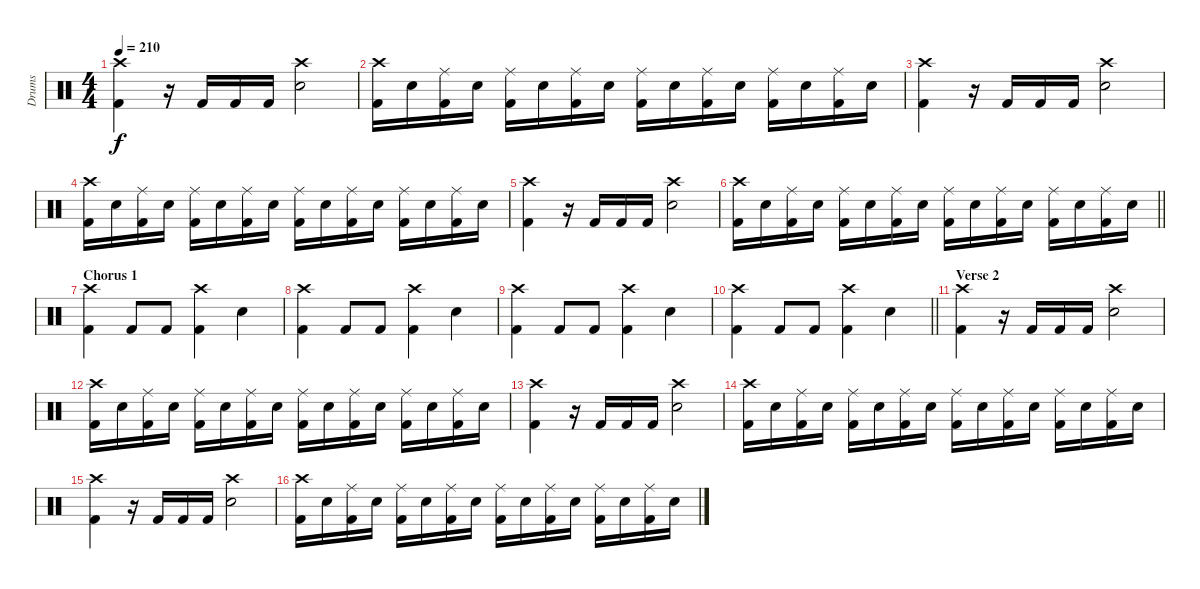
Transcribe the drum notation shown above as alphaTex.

\track ("Drums" "Drums") {instrument percussion}
\staff {score}
\articulation defaults
\ts (4 4)
\tempo 210
\clef neutral
\ks c
("Crash high (hit)" "Kick (hit) 2").4{dy f} r.16 "Kick (hit) 2".16 "Kick (hit) 2".16 "Kick (hit) 2".16 ("Crash high (hit)" "Electric Snare (hit)").2 |
("Crash high (hit)" "Kick (hit) 2").16 "Electric Snare (hit)".16 ("Ride (middle)" "Kick (hit) 2").16 "Electric Snare (hit)".16 ("Ride (middle)" "Kick (hit) 2").16 "Electric Snare (hit)".16 ("Ride (middle)" "Kick (hit) 2").16 "Electric Snare (hit)".16 ("Ride (middle)" "Kick (hit) 2").16 "Electric Snare (hit)".16 ("Ride (middle)" "Kick (hit) 2").16 "Electric Snare (hit)".16 ("Ride (middle)" "Kick (hit) 2").16 "Electric Snare (hit)".16 ("Ride (middle)" "Kick (hit) 2").16 "Electric Snare (hit)".16 |
("Crash high (hit)" "Kick (hit) 2").4 r.16 "Kick (hit) 2".16 "Kick (hit) 2".16 "Kick (hit) 2".16 ("Crash high (hit)" "Electric Snare (hit)").2 |
("Crash high (hit)" "Kick (hit) 2").16 "Electric Snare (hit)".16 ("Ride (middle)" "Kick (hit) 2").16 "Electric Snare (hit)".16 ("Ride (middle)" "Kick (hit) 2").16 "Electric Snare (hit)".16 ("Ride (middle)" "Kick (hit) 2").16 "Electric Snare (hit)".16 ("Ride (middle)" "Kick (hit) 2").16 "Electric Snare (hit)".16 ("Ride (middle)" "Kick (hit) 2").16 "Electric Snare (hit)".16 ("Ride (middle)" "Kick (hit) 2").16 "Electric Snare (hit)".16 ("Ride (middle)" "Kick (hit) 2").16 "Electric Snare (hit)".16 |
("Crash high (hit)" "Kick (hit) 2").4 r.16 "Kick (hit) 2".16 "Kick (hit) 2".16 "Kick (hit) 2".16 ("Crash high (hit)" "Electric Snare (hit)").2 |
\barLineRight lightlight
("Crash high (hit)" "Kick (hit) 2").16 "Electric Snare (hit)".16 ("Ride (middle)" "Kick (hit) 2").16 "Electric Snare (hit)".16 ("Ride (middle)" "Kick (hit) 2").16 "Electric Snare (hit)".16 ("Ride (middle)" "Kick (hit) 2").16 "Electric Snare (hit)".16 ("Ride (middle)" "Kick (hit) 2").16 "Electric Snare (hit)".16 ("Ride (middle)" "Kick (hit) 2").16 "Electric Snare (hit)".16 ("Ride (middle)" "Kick (hit) 2").16 "Electric Snare (hit)".16 ("Ride (middle)" "Kick (hit) 2").16 "Electric Snare (hit)".16 |
\section ("" "Chorus 1")
("Crash high (hit)" "Kick (hit) 2").4 "Kick (hit) 2".8 "Kick (hit) 2".8 ("Crash high (hit)" "Kick (hit) 2").4 "Electric Snare (hit)".4 |
("Crash high (hit)" "Kick (hit) 2").4 "Kick (hit) 2".8 "Kick (hit) 2".8 ("Crash high (hit)" "Kick (hit) 2").4 "Electric Snare (hit)".4 |
("Crash high (hit)" "Kick (hit) 2").4 "Kick (hit) 2".8 "Kick (hit) 2".8 ("Crash high (hit)" "Kick (hit) 2").4 "Electric Snare (hit)".4 |
\barLineRight lightlight
("Crash high (hit)" "Kick (hit) 2").4 "Kick (hit) 2".8 "Kick (hit) 2".8 ("Crash high (hit)" "Kick (hit) 2").4 "Electric Snare (hit)".4 |
\section ("" "Verse 2")
("Crash high (hit)" "Kick (hit) 2").4 r.16 "Kick (hit) 2".16 "Kick (hit) 2".16 "Kick (hit) 2".16 ("Crash high (hit)" "Electric Snare (hit)").2 |
("Crash high (hit)" "Kick (hit) 2").16 "Electric Snare (hit)".16 ("Ride (middle)" "Kick (hit) 2").16 "Electric Snare (hit)".16 ("Ride (middle)" "Kick (hit) 2").16 "Electric Snare (hit)".16 ("Ride (middle)" "Kick (hit) 2").16 "Electric Snare (hit)".16 ("Ride (middle)" "Kick (hit) 2").16 "Electric Snare (hit)".16 ("Ride (middle)" "Kick (hit) 2").16 "Electric Snare (hit)".16 ("Ride (middle)" "Kick (hit) 2").16 "Electric Snare (hit)".16 ("Ride (middle)" "Kick (hit) 2").16 "Electric Snare (hit)".16 |
("Crash high (hit)" "Kick (hit) 2").4 r.16 "Kick (hit) 2".16 "Kick (hit) 2".16 "Kick (hit) 2".16 ("Crash high (hit)" "Electric Snare (hit)").2 |
("Crash high (hit)" "Kick (hit) 2").16 "Electric Snare (hit)".16 ("Ride (middle)" "Kick (hit) 2").16 "Electric Snare (hit)".16 ("Ride (middle)" "Kick (hit) 2").16 "Electric Snare (hit)".16 ("Ride (middle)" "Kick (hit) 2").16 "Electric Snare (hit)".16 ("Ride (middle)" "Kick (hit) 2").16 "Electric Snare (hit)".16 ("Ride (middle)" "Kick (hit) 2").16 "Electric Snare (hit)".16 ("Ride (middle)" "Kick (hit) 2").16 "Electric Snare (hit)".16 ("Ride (middle)" "Kick (hit) 2").16 "Electric Snare (hit)".16 |
("Crash high (hit)" "Kick (hit) 2").4 r.16 "Kick (hit) 2".16 "Kick (hit) 2".16 "Kick (hit) 2".16 ("Crash high (hit)" "Electric Snare (hit)").2 |
("Crash high (hit)" "Kick (hit) 2").16 "Electric Snare (hit)".16 ("Ride (middle)" "Kick (hit) 2").16 "Electric Snare (hit)".16 ("Ride (middle)" "Kick (hit) 2").16 "Electric Snare (hit)".16 ("Ride (middle)" "Kick (hit) 2").16 "Electric Snare (hit)".16 ("Ride (middle)" "Kick (hit) 2").16 "Electric Snare (hit)".16 ("Ride (middle)" "Kick (hit) 2").16 "Electric Snare (hit)".16 ("Ride (middle)" "Kick (hit) 2").16 "Electric Snare (hit)".16 ("Ride (middle)" "Kick (hit) 2").16 "Electric Snare (hit)".16
